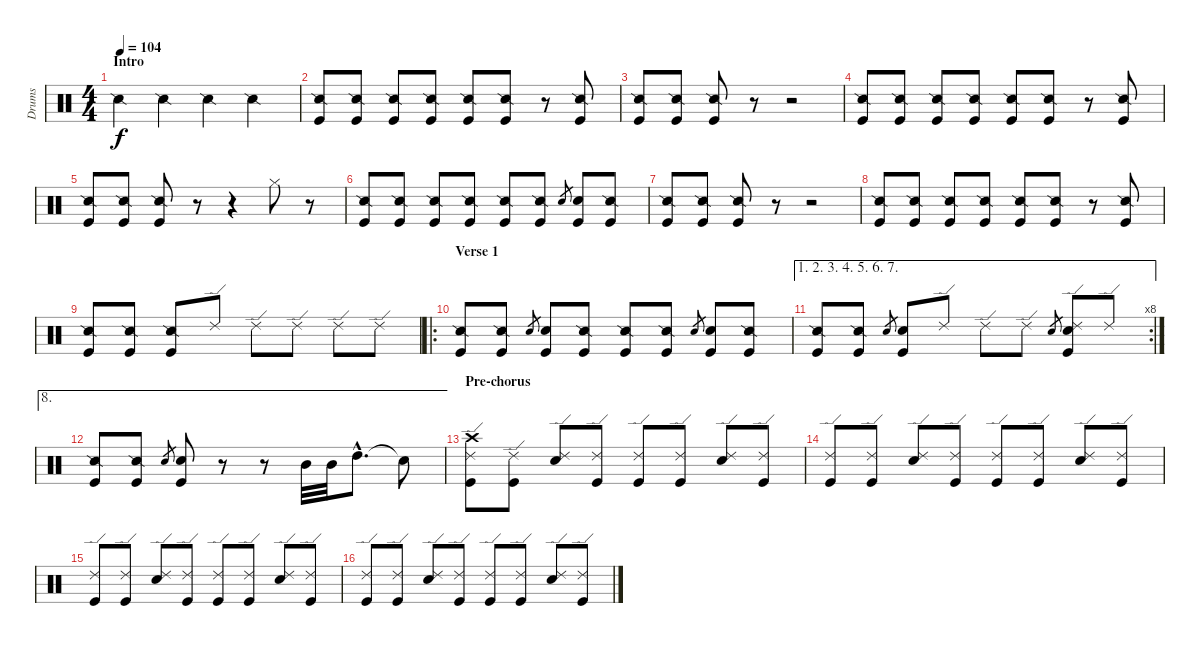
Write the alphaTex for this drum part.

\track ("Drums" "Drums") {instrument percussion}
\staff {score}
\articulation defaults
\ts (4 4)
\section ("" "Intro")
\tempo 104
\clef neutral
\ks c "Snare (side stick) 2".4{dy f} "Snare (side stick) 2".4 "Snare (side stick) 2".4 "Snare (side stick) 2".4
|
("Snare (side stick) 2" "Kick (hit)").8 ("Snare (side stick) 2" "Kick (hit)").8 ("Snare (side stick) 2" "Kick (hit)").8 ("Snare (side stick) 2" "Kick (hit)").8 ("Snare (side stick) 2" "Kick (hit)").8 ("Snare (side stick) 2" "Kick (hit)").8 r.8 ("Snare (side stick) 2" "Kick (hit)").8 |
("Snare (side stick) 2" "Kick (hit)").8 ("Snare (side stick) 2" "Kick (hit)").8 ("Snare (side stick) 2" "Kick (hit)").8 r.8 r.2 |
("Snare (side stick) 2" "Kick (hit)").8 ("Snare (side stick) 2" "Kick (hit)").8 ("Snare (side stick) 2" "Kick (hit)").8 ("Snare (side stick) 2" "Kick (hit)").8 ("Snare (side stick) 2" "Kick (hit)").8 ("Snare (side stick) 2" "Kick (hit)").8 r.8 ("Snare (side stick) 2" "Kick (hit)").8 |
("Snare (side stick) 2" "Kick (hit)").8 ("Snare (side stick) 2" "Kick (hit)").8 ("Snare (side stick) 2" "Kick (hit)").8 r.8 r.4 "Hi-Hat (closed)".8 r.8 |
("Snare (side stick) 2" "Kick (hit)").8 ("Snare (side stick) 2" "Kick (hit)").8 ("Snare (side stick) 2" "Kick (hit)").8 ("Snare (side stick) 2" "Kick (hit)").8 ("Snare (side stick) 2" "Kick (hit)").8 ("Snare (side stick) 2" "Kick (hit)").8 "Snare (hit) 2".8{gr} ("Snare (hit) 2" "Kick (hit)").8 ("Snare (side stick) 2" "Kick (hit)").8 |
("Snare (side stick) 2" "Kick (hit)").8 ("Snare (side stick) 2" "Kick (hit)").8 ("Snare (side stick) 2" "Kick (hit)").8 r.8 r.2 |
("Snare (side stick) 2" "Kick (hit)").8 ("Snare (side stick) 2" "Kick (hit)").8 ("Snare (side stick) 2" "Kick (hit)").8 ("Snare (side stick) 2" "Kick (hit)").8 ("Snare (side stick) 2" "Kick (hit)").8 ("Snare (side stick) 2" "Kick (hit)").8 r.8 ("Snare (side stick) 2" "Kick (hit)").8 |
("Snare (side stick) 2" "Kick (hit)").8 ("Snare (side stick) 2" "Kick (hit)").8 ("Snare (side stick) 2" "Kick (hit)").8 "Ride (edge) 2".8 "Ride (edge) 2".8 "Ride (edge) 2".8 "Ride (edge) 2".8 "Ride (edge) 2".8 |
\ro
\section ("" "Verse 1")
("Snare (side stick) 2" "Kick (hit)").8 ("Snare (side stick) 2" "Kick (hit)").8 "Snare (hit) 2".8{gr} ("Snare (hit) 2" "Kick (hit)").8 ("Snare (side stick) 2" "Kick (hit)").8 ("Snare (side stick) 2" "Kick (hit)").8 ("Snare (side stick) 2" "Kick (hit)").8 "Snare (hit) 2".8{gr} ("Snare (hit) 2" "Kick (hit)").8 ("Snare (side stick) 2" "Kick (hit)").8 |
\ae (1 2 3 4 5 6 7)
\rc 8
("Snare (side stick) 2" "Kick (hit)").8 ("Snare (side stick) 2" "Kick (hit)").8 "Snare (hit) 2".8{gr} ("Snare (hit) 2" "Kick (hit)").8 "Ride (edge) 2".8 "Ride (edge) 2".8 "Ride (edge) 2".8 "Snare (hit) 2".8{gr} ("Ride (edge) 2" "Snare (hit) 2" "Kick (hit)").8 "Ride (edge) 2".8 |
\ae 8
("Snare (side stick) 2" "Kick (hit)").8 ("Snare (side stick) 2" "Kick (hit)").8 "Snare (hit) 2".8{gr} ("Snare (hit) 2" "Kick (hit)").8 r.8 r.8 "Mid Tom (hit)".32 "Mid Tom (hit)".32 "High Tom (hit)"{hac}.8{d} "Snare (hit)"{t}.8 |
\section ("" "Pre-chorus")
("Ride (edge) 2" "Crash high (hit)" "Kick (hit)").8 ("Ride (edge) 2" "Kick (hit)").8 ("Ride (edge) 2" "Snare (hit) 2").8 ("Ride (edge) 2" "Kick (hit)").8 ("Ride (edge) 2" "Kick (hit)").8 ("Ride (edge) 2" "Kick (hit)").8 ("Ride (edge) 2" "Snare (hit) 2").8 ("Ride (edge) 2" "Kick (hit)").8 |
("Ride (edge) 2" "Kick (hit)").8 ("Ride (edge) 2" "Kick (hit)").8 ("Ride (edge) 2" "Snare (hit) 2").8 ("Ride (edge) 2" "Kick (hit)").8 ("Ride (edge) 2" "Kick (hit)").8 ("Ride (edge) 2" "Kick (hit)").8 ("Ride (edge) 2" "Snare (hit) 2").8 ("Ride (edge) 2" "Kick (hit)").8 |
("Ride (edge) 2" "Kick (hit)").8 ("Ride (edge) 2" "Kick (hit)").8 ("Ride (edge) 2" "Snare (hit) 2").8 ("Ride (edge) 2" "Kick (hit)").8 ("Ride (edge) 2" "Kick (hit)").8 ("Ride (edge) 2" "Kick (hit)").8 ("Ride (edge) 2" "Snare (hit) 2").8 ("Ride (edge) 2" "Kick (hit)").8 |
("Ride (edge) 2" "Kick (hit)").8 ("Ride (edge) 2" "Kick (hit)").8 ("Ride (edge) 2" "Snare (hit) 2").8 ("Ride (edge) 2" "Kick (hit)").8 ("Ride (edge) 2" "Kick (hit)").8 ("Ride (edge) 2" "Kick (hit)").8 ("Ride (edge) 2" "Snare (hit) 2").8 ("Ride (edge) 2" "Kick (hit)").8
